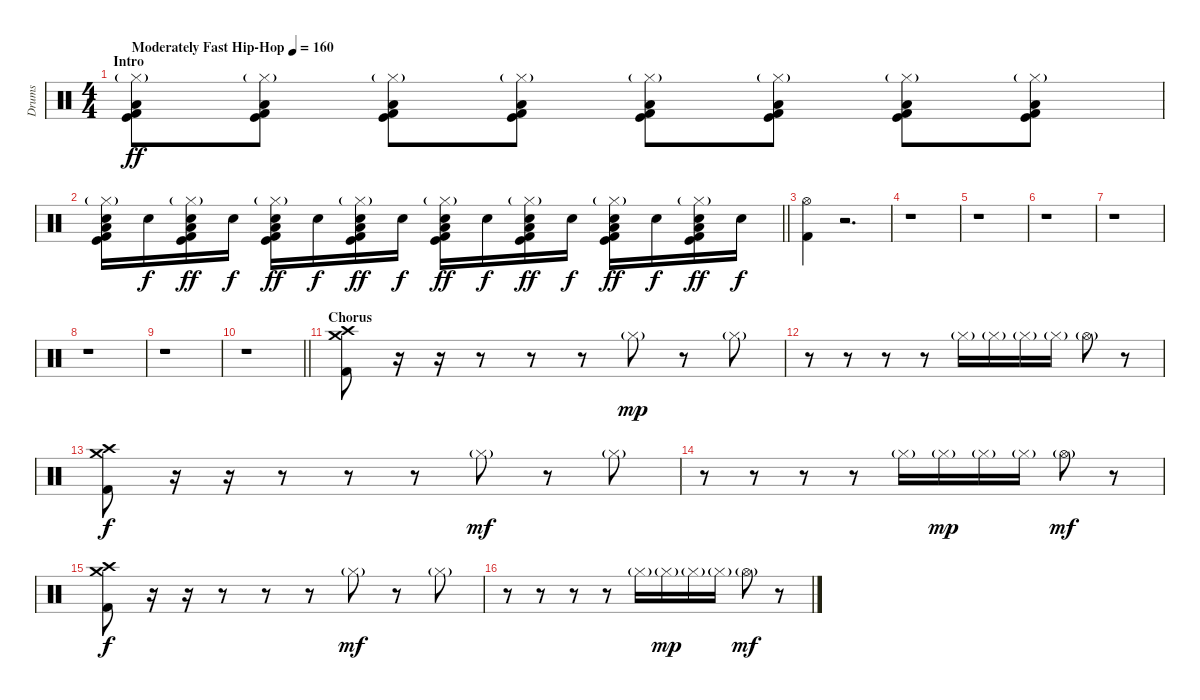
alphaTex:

\track ("Drums" "Drums") {instrument percussion}
\staff {score}
\articulation defaults
\ts (4 4)
\section ("" "Intro")
\tempo (160 "Moderately Fast Hip-Hop")
\clef neutral
\ks c
("Hi-Hat (closed)"{g} "Low Tom (hit)" "Kick (hit)" "Kick (hit) 2").8{dy ff} ("Hi-Hat (closed)"{g} "Low Tom (hit)" "Kick (hit)" "Kick (hit) 2").8 ("Hi-Hat (closed)"{g} "Low Tom (hit)" "Kick (hit)" "Kick (hit) 2").8 ("Hi-Hat (closed)"{g} "Low Tom (hit)" "Kick (hit)" "Kick (hit) 2").8 ("Hi-Hat (closed)"{g} "Low Tom (hit)" "Kick (hit)" "Kick (hit) 2").8 ("Hi-Hat (closed)"{g} "Low Tom (hit)" "Kick (hit)" "Kick (hit) 2").8 ("Hi-Hat (closed)"{g} "Low Tom (hit)" "Kick (hit)" "Kick (hit) 2").8 ("Hi-Hat (closed)"{g} "Low Tom (hit)" "Kick (hit)" "Kick (hit) 2").8 |
\barLineRight lightlight
("Hi-Hat (closed)"{g} "Electric Snare (hit)" "Low Tom (hit)" "Kick (hit)" "Kick (hit) 2").16 "Electric Snare (hit)".16{dy f} ("Hi-Hat (closed)"{g} "Electric Snare (hit)" "Low Tom (hit)" "Kick (hit)" "Kick (hit) 2").16{dy ff} "Electric Snare (hit)".16{dy f} ("Hi-Hat (closed)"{g} "Electric Snare (hit)" "Low Tom (hit)" "Kick (hit)" "Kick (hit) 2").16{dy ff} "Electric Snare (hit)".16{dy f} ("Hi-Hat (closed)"{g} "Electric Snare (hit)" "Low Tom (hit)" "Kick (hit)" "Kick (hit) 2").16{dy ff} "Electric Snare (hit)".16{dy f} ("Hi-Hat (closed)"{g} "Electric Snare (hit)" "Low Tom (hit)" "Kick (hit)" "Kick (hit) 2").16{dy ff} "Electric Snare (hit)".16{dy f} ("Hi-Hat (closed)"{g} "Electric Snare (hit)" "Low Tom (hit)" "Kick (hit)" "Kick (hit) 2").16{dy ff} "Electric Snare (hit)".16{dy f} ("Hi-Hat (closed)"{g} "Electric Snare (hit)" "Low Tom (hit)" "Kick (hit)" "Kick (hit) 2").16{dy ff} "Electric Snare (hit)".16{dy f} ("Hi-Hat (closed)"{g} "Electric Snare (hit)" "Low Tom (hit)" "Kick (hit)" "Kick (hit) 2").16{dy ff} "Electric Snare (hit)".16{dy f} |
\section ("" "")
("Hi-Hat (open)" "Kick (hit) 2").4 r.2{d} |
r.1 |
r.1 |
r.1 |
r.1 |
r.1 |
r.1 |
\barLineRight lightlight
r.1 |
\section ("" "Chorus")
("Crash high (hit)" "Crash medium (hit)" "Kick (hit) 2").8 r.16 r.16 r.8 r.8 r.8 "Hi-Hat (closed)"{g}.8{dy mp} r.8 "Hi-Hat (closed)"{g}.8 |
r.8 r.8 r.8 r.8 "Hi-Hat (closed)"{g}.16 "Hi-Hat (closed)"{g}.16 "Hi-Hat (closed)"{g}.16 "Hi-Hat (closed)"{g}.16 "Hi-Hat (open)"{g}.8 r.8 |
("Crash high (hit)" "Crash medium (hit)" "Kick (hit) 2").8{dy f} r.16 r.16 r.8 r.8 r.8 "Hi-Hat (closed)"{g}.8{dy mf} r.8 "Hi-Hat (closed)"{g}.8 |
r.8 r.8 r.8 r.8 "Hi-Hat (closed)"{g}.16 "Hi-Hat (closed)"{g}.16{dy mp} "Hi-Hat (closed)"{g}.16 "Hi-Hat (closed)"{g}.16 "Hi-Hat (open)"{g}.8{dy mf} r.8 |
("Crash high (hit)" "Crash medium (hit)" "Kick (hit) 2").8{dy f} r.16 r.16 r.8 r.8 r.8 "Hi-Hat (closed)"{g}.8{dy mf} r.8 "Hi-Hat (closed)"{g}.8 |
r.8 r.8 r.8 r.8 "Hi-Hat (closed)"{g}.16 "Hi-Hat (closed)"{g}.16{dy mp} "Hi-Hat (closed)"{g}.16 "Hi-Hat (closed)"{g}.16 "Hi-Hat (open)"{g}.8{dy mf} r.8
